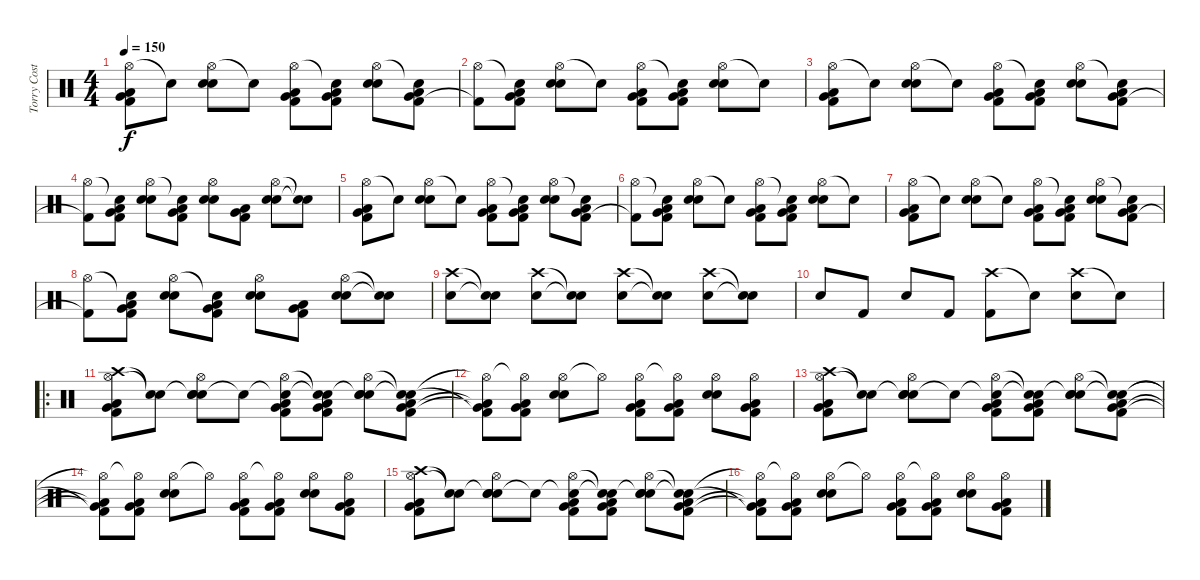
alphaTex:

\track ("Torry Costellano" "Torry Cost") {instrument percussion bank 127}
\staff {score}
\articulation defaults
\ts (4 4)
\tempo 150
\clef neutral
\ks c
("Hi-Hat (open)" "Kick (hit) 2" "Very Low Tom (hit)" "Low Tom (hit)").8{dy f} "Snare (hit)"{t}.8 ("Hi-Hat (open)" "Electric Snare (hit)" "Snare (hit) 2").8 "Snare (hit)"{t}.8 ("Hi-Hat (open)" "Kick (hit) 2" "Very Low Tom (hit)" "Low Tom (hit)").8 ("Snare (hit)"{t} "Kick (hit) 2" "Very Low Tom (hit)" "Low Tom (hit)").8 ("Hi-Hat (open)" "Electric Snare (hit)" "Snare (hit) 2").8 ("Snare (hit)"{t} "Kick (hit) 2" "Very Low Tom (hit)" "Low Tom (hit)").8 |
("Hi-Hat (open)" "Kick (hit) 2"{t}).8 ("Snare (hit)"{t} "Kick (hit) 2" "Very Low Tom (hit)" "Low Tom (hit)").8 ("Hi-Hat (open)" "Electric Snare (hit)" "Snare (hit) 2").8 "Snare (hit)"{t}.8 ("Hi-Hat (open)" "Kick (hit) 2" "Very Low Tom (hit)" "Low Tom (hit)").8 ("Snare (hit)"{t} "Kick (hit) 2" "Very Low Tom (hit)" "Low Tom (hit)").8 ("Hi-Hat (open)" "Electric Snare (hit)" "Snare (hit) 2").8 "Snare (hit)"{t}.8 |
("Hi-Hat (open)" "Kick (hit) 2" "Very Low Tom (hit)" "Low Tom (hit)").8 "Snare (hit)"{t}.8 ("Hi-Hat (open)" "Electric Snare (hit)" "Snare (hit) 2").8 "Snare (hit)"{t}.8 ("Hi-Hat (open)" "Kick (hit) 2" "Very Low Tom (hit)" "Low Tom (hit)").8 ("Snare (hit)"{t} "Kick (hit) 2" "Very Low Tom (hit)" "Low Tom (hit)").8 ("Hi-Hat (open)" "Electric Snare (hit)" "Snare (hit) 2").8 ("Snare (hit)"{t} "Kick (hit) 2" "Very Low Tom (hit)" "Low Tom (hit)").8 |
("Hi-Hat (open)" "Kick (hit) 2"{t}).8 ("Snare (hit)"{t} "Kick (hit) 2" "Very Low Tom (hit)" "Low Tom (hit)").8 ("Hi-Hat (open)" "Electric Snare (hit)" "Snare (hit) 2").8 ("Snare (hit)"{t} "Kick (hit) 2" "Very Low Tom (hit)" "Low Tom (hit)").8 ("Hi-Hat (open)" "Electric Snare (hit)" "Snare (hit) 2").8 ("Kick (hit) 2" "Very Low Tom (hit)" "Low Tom (hit)").8 ("Hi-Hat (open)" "Electric Snare (hit)" "Snare (hit) 2").8 ("Snare (hit)"{t} "Snare (hit)"{t}).8 |
("Hi-Hat (open)" "Kick (hit) 2" "Very Low Tom (hit)" "Low Tom (hit)").8 "Snare (hit)"{t}.8 ("Hi-Hat (open)" "Electric Snare (hit)" "Snare (hit) 2").8 "Snare (hit)"{t}.8 ("Hi-Hat (open)" "Kick (hit) 2" "Very Low Tom (hit)" "Low Tom (hit)").8 ("Snare (hit)"{t} "Kick (hit) 2" "Very Low Tom (hit)" "Low Tom (hit)").8 ("Hi-Hat (open)" "Electric Snare (hit)" "Snare (hit) 2").8 ("Snare (hit)"{t} "Kick (hit) 2" "Very Low Tom (hit)" "Low Tom (hit)").8 |
("Hi-Hat (open)" "Kick (hit) 2"{t}).8 ("Snare (hit)"{t} "Kick (hit) 2" "Very Low Tom (hit)" "Low Tom (hit)").8 ("Hi-Hat (open)" "Electric Snare (hit)" "Snare (hit) 2").8 "Snare (hit)"{t}.8 ("Hi-Hat (open)" "Kick (hit) 2" "Very Low Tom (hit)" "Low Tom (hit)").8 ("Snare (hit)"{t} "Kick (hit) 2" "Very Low Tom (hit)" "Low Tom (hit)").8 ("Hi-Hat (open)" "Electric Snare (hit)" "Snare (hit) 2").8 "Snare (hit)"{t}.8 |
("Hi-Hat (open)" "Kick (hit) 2" "Very Low Tom (hit)" "Low Tom (hit)").8 "Snare (hit)"{t}.8 ("Hi-Hat (open)" "Electric Snare (hit)" "Snare (hit) 2").8 "Snare (hit)"{t}.8 ("Hi-Hat (open)" "Kick (hit) 2" "Very Low Tom (hit)" "Low Tom (hit)").8 ("Snare (hit)"{t} "Kick (hit) 2" "Very Low Tom (hit)" "Low Tom (hit)").8 ("Hi-Hat (open)" "Electric Snare (hit)" "Snare (hit) 2").8 ("Snare (hit)"{t} "Kick (hit) 2" "Very Low Tom (hit)" "Low Tom (hit)").8 |
("Hi-Hat (open)" "Kick (hit) 2"{t}).8 ("Snare (hit)"{t} "Kick (hit) 2" "Very Low Tom (hit)" "Low Tom (hit)").8 ("Hi-Hat (open)" "Electric Snare (hit)" "Snare (hit) 2").8 ("Snare (hit)"{t} "Kick (hit) 2" "Very Low Tom (hit)" "Low Tom (hit)").8 ("Hi-Hat (open)" "Electric Snare (hit)" "Snare (hit) 2").8 ("Kick (hit) 2" "Very Low Tom (hit)" "Low Tom (hit)").8 ("Hi-Hat (open)" "Electric Snare (hit)" "Snare (hit) 2").8 ("Snare (hit)"{t} "Snare (hit)"{t}).8 |
("Crash high (hit)" "Electric Snare (hit)").8 ("Snare (hit)"{t} "Snare (hit)"{t}).8 ("Crash high (hit)" "Electric Snare (hit)").8 ("Snare (hit)"{t} "Snare (hit)"{t}).8 ("Crash high (hit)" "Electric Snare (hit)").8 ("Snare (hit)"{t} "Snare (hit)"{t}).8 ("Crash high (hit)" "Electric Snare (hit)").8 ("Snare (hit)"{t} "Snare (hit)"{t}).8 |
"Electric Snare (hit)".8 "Kick (hit) 2".8 "Electric Snare (hit)".8 "Kick (hit) 2".8 ("Crash high (hit)" "Kick (hit) 2").8 "Snare (hit)"{t}.8 ("Crash high (hit)" "Electric Snare (hit)").8 "Snare (hit)"{t}.8 |
\ro
("Crash high (hit)" "Hi-Hat (open)" "Kick (hit) 2" "Very Low Tom (hit)" "Low Tom (hit)").8 ("Snare (hit)"{t} "Snare (hit)"{t}).8 ("Snare (hit)"{t} "Hi-Hat (open)" "Electric Snare (hit)" "Snare (hit) 2").8 "Snare (hit)"{t}.8 ("Snare (hit)"{t} "Hi-Hat (open)" "Kick (hit) 2" "Very Low Tom (hit)" "Low Tom (hit)").8 ("Snare (hit)"{t} "Snare (hit)"{t} "Kick (hit) 2" "Very Low Tom (hit)" "Low Tom (hit)").8 ("Snare (hit)"{t} "Hi-Hat (open)" "Electric Snare (hit)" "Snare (hit) 2").8 ("Snare (hit)"{t} "Snare (hit)"{t} "Kick (hit) 2" "Very Low Tom (hit)" "Low Tom (hit)").8 |
("Hi-Hat (open)"{t} "Kick (hit) 2"{t} "Very Low Tom (hit)"{t} "Low Tom (hit)"{t}).8 ("Hi-Hat (open)"{t} "Low Tom (hit)" "Very Low Tom (hit)" "Kick (hit) 2").8 ("Hi-Hat (open)" "Electric Snare (hit)" "Snare (hit) 2").8 "Hi-Hat (open)"{t}.8 ("Hi-Hat (open)" "Low Tom (hit)" "Very Low Tom (hit)" "Kick (hit) 2").8 ("Hi-Hat (open)"{t} "Low Tom (hit)" "Very Low Tom (hit)" "Kick (hit) 2").8 ("Hi-Hat (open)" "Snare (hit) 2" "Electric Snare (hit)").8 ("Hi-Hat (open)" "Low Tom (hit)" "Very Low Tom (hit)" "Kick (hit) 2").8 |
("Crash high (hit)" "Hi-Hat (open)" "Kick (hit) 2" "Very Low Tom (hit)" "Low Tom (hit)").8 ("Snare (hit)"{t} "Snare (hit)"{t}).8 ("Snare (hit)"{t} "Hi-Hat (open)" "Electric Snare (hit)" "Snare (hit) 2").8 "Snare (hit)"{t}.8 ("Snare (hit)"{t} "Hi-Hat (open)" "Kick (hit) 2" "Very Low Tom (hit)" "Low Tom (hit)").8 ("Snare (hit)"{t} "Snare (hit)"{t} "Kick (hit) 2" "Very Low Tom (hit)" "Low Tom (hit)").8 ("Snare (hit)"{t} "Hi-Hat (open)" "Electric Snare (hit)" "Snare (hit) 2").8 ("Snare (hit)"{t} "Snare (hit)"{t} "Kick (hit) 2" "Very Low Tom (hit)" "Low Tom (hit)").8 |
("Hi-Hat (open)"{t} "Kick (hit) 2"{t} "Very Low Tom (hit)"{t} "Low Tom (hit)"{t}).8 ("Hi-Hat (open)"{t} "Low Tom (hit)" "Very Low Tom (hit)" "Kick (hit) 2").8 ("Hi-Hat (open)" "Electric Snare (hit)" "Snare (hit) 2").8 "Hi-Hat (open)"{t}.8 ("Hi-Hat (open)" "Low Tom (hit)" "Very Low Tom (hit)" "Kick (hit) 2").8 ("Hi-Hat (open)"{t} "Low Tom (hit)" "Very Low Tom (hit)" "Kick (hit) 2").8 ("Hi-Hat (open)" "Snare (hit) 2" "Electric Snare (hit)").8 ("Hi-Hat (open)" "Low Tom (hit)" "Very Low Tom (hit)" "Kick (hit) 2").8 |
("Crash high (hit)" "Hi-Hat (open)" "Kick (hit) 2" "Very Low Tom (hit)" "Low Tom (hit)").8 ("Snare (hit)"{t} "Snare (hit)"{t}).8 ("Snare (hit)"{t} "Hi-Hat (open)" "Electric Snare (hit)" "Snare (hit) 2").8 "Snare (hit)"{t}.8 ("Snare (hit)"{t} "Hi-Hat (open)" "Kick (hit) 2" "Very Low Tom (hit)" "Low Tom (hit)").8 ("Snare (hit)"{t} "Snare (hit)"{t} "Kick (hit) 2" "Very Low Tom (hit)" "Low Tom (hit)").8 ("Snare (hit)"{t} "Hi-Hat (open)" "Electric Snare (hit)" "Snare (hit) 2").8 ("Snare (hit)"{t} "Snare (hit)"{t} "Kick (hit) 2" "Very Low Tom (hit)" "Low Tom (hit)").8 |
("Hi-Hat (open)"{t} "Kick (hit) 2"{t} "Very Low Tom (hit)"{t} "Low Tom (hit)"{t}).8 ("Hi-Hat (open)"{t} "Low Tom (hit)" "Very Low Tom (hit)" "Kick (hit) 2").8 ("Hi-Hat (open)" "Electric Snare (hit)" "Snare (hit) 2").8 "Hi-Hat (open)"{t}.8 ("Hi-Hat (open)" "Low Tom (hit)" "Very Low Tom (hit)" "Kick (hit) 2").8 ("Hi-Hat (open)"{t} "Low Tom (hit)" "Very Low Tom (hit)" "Kick (hit) 2").8 ("Hi-Hat (open)" "Snare (hit) 2" "Electric Snare (hit)").8 ("Hi-Hat (open)" "Low Tom (hit)" "Very Low Tom (hit)" "Kick (hit) 2").8
